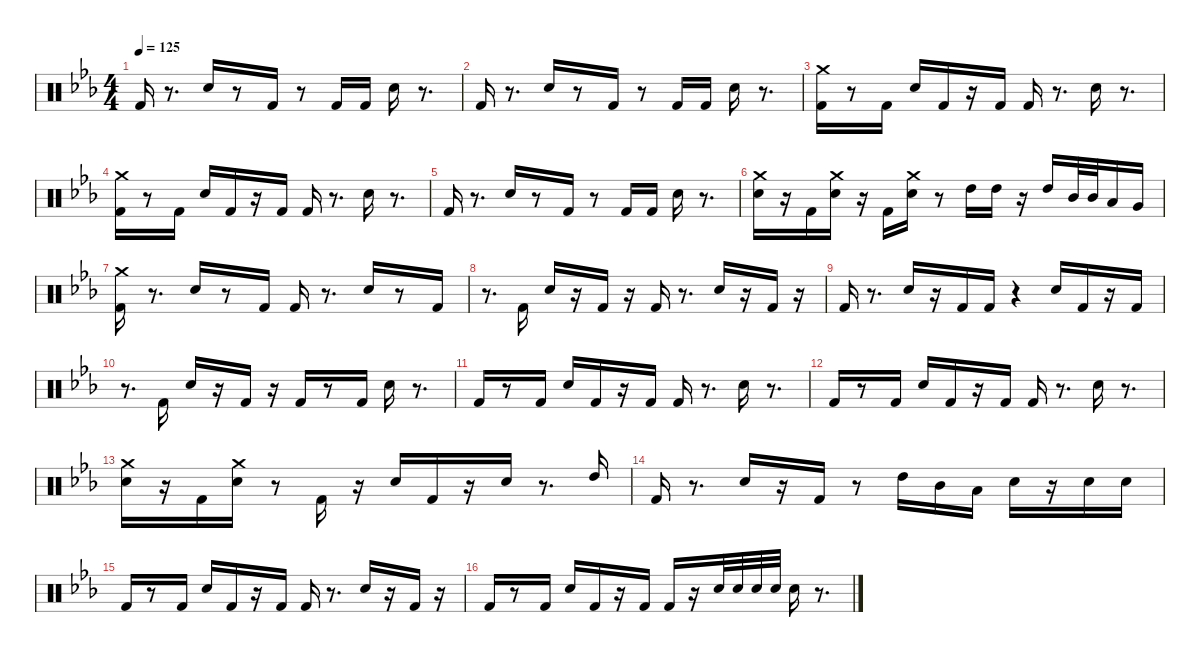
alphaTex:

\defaultSystemsLayout 4
\hideDynamics
\bracketExtendMode nobrackets
\singleTrackTrackNamePolicy hidden
\multiTrackTrackNamePolicy hidden
\firstSystemTrackNameMode fullname
\firstSystemTrackNameOrientation horizontal
\otherSystemsTrackNameOrientation horizontal
\track ("Batterie" "drm.") {defaultSystemsLayout 4 instrument percussion}
\staff {score}
\articulation defaults
\ts (4 4)
\tempo 125
\clef neutral
\ks eb "Kick (hit) 2"{acc forcenatural}.16{dy f beam Up}
r.8{d beam Up} "Snare (hit) 2"{acc forcenatural}.16{beam Up} r.8{beam Up} "Kick (hit) 2"{acc forcenatural}.16{beam Up} r.8{beam Up} "Kick (hit) 2"{acc forcenatural}.16{beam Up} "Kick (hit) 2"{acc forcenatural}.16{beam Up} "Snare (hit) 2"{acc forcenatural}.16{beam Down} r.8{d beam Down} |
"Kick (hit) 2"{acc forcenatural}.16{beam Up} r.8{d beam Up} "Snare (hit) 2"{acc forcenatural}.16{beam Up} r.8{beam Up} "Kick (hit) 2"{acc forcenatural}.16{beam Up} r.8{beam Up} "Kick (hit) 2"{acc forcenatural}.16{beam Up} "Kick (hit) 2"{acc forcenatural}.16{beam Up} "Snare (hit) 2"{acc forcenatural}.16{beam Down} r.8{d beam Down} |
("Kick (hit) 2"{acc forcenatural} "Crash medium (hit)"{acc forcenatural}).16{beam Down} r.8{beam Down} "Kick (hit) 2"{acc forcenatural}.16{beam Down} "Snare (hit) 2"{acc forcenatural}.16{beam Up} "Kick (hit) 2"{acc forcenatural}.16{beam Up} r.16{beam Up} "Kick (hit) 2"{acc forcenatural}.16{beam Up} "Kick (hit) 2"{acc forcenatural}.16{beam Up} r.8{d beam Up} "Snare (hit) 2"{acc forcenatural}.16{beam Down} r.8{d beam Down} |
("Kick (hit) 2"{acc forcenatural} "Crash medium (hit)"{acc forcenatural}).16{beam Down} r.8{beam Down} "Kick (hit) 2"{acc forcenatural}.16{beam Down} "Snare (hit) 2"{acc forcenatural}.16{beam Up} "Kick (hit) 2"{acc forcenatural}.16{beam Up} r.16{beam Up} "Kick (hit) 2"{acc forcenatural}.16{beam Up} "Kick (hit) 2"{acc forcenatural}.16{beam Up} r.8{d beam Up} "Snare (hit) 2"{acc forcenatural}.16{beam Down} r.8{d beam Down} |
"Kick (hit) 2"{acc forcenatural}.16{beam Up} r.8{d beam Up} "Snare (hit) 2"{acc forcenatural}.16{beam Up} r.8{beam Up} "Kick (hit) 2"{acc forcenatural}.16{beam Up} r.8{beam Up} "Kick (hit) 2"{acc forcenatural}.16{beam Up} "Kick (hit) 2"{acc forcenatural}.16{beam Up} "Snare (hit) 2"{acc forcenatural}.16{beam Down} r.8{d beam Down} |
("Snare (hit) 2"{acc forcenatural} "Crash medium (hit)"{acc forcenatural}).16{beam Down} r.16{beam Down} "Kick (hit) 2"{acc forcenatural}.16{beam Down} ("Snare (hit) 2"{acc forcenatural} "Crash medium (hit)"{acc forcenatural}).16{beam Down} r.16{beam Down} "Kick (hit) 2"{acc forcenatural}.16{beam Down} ("Snare (hit) 2"{acc forcenatural} "Crash medium (hit)"{acc forcenatural}).16{beam Down} r.8{beam Down} "High Tom (hit)"{acc forcenatural}.16{beam Down} "High Tom (hit)"{acc forcenatural}.16{beam Down} r.16{beam Down} "High Tom (hit)"{acc forcenatural}.16{beam Up} "Mid Tom (hit)"{acc forcenatural}.32{beam Up} "Mid Tom (hit)"{acc forcenatural}.32{beam Up} "Low Tom (hit)"{acc forcenatural}.16{beam Up} "Very Low Tom (hit)"{acc forcenatural}.16{beam Up} |
("Crash medium (hit)"{acc forcenatural} "Kick (hit) 2"{acc forcenatural}).16{beam Down} r.8{d beam Down} "Snare (hit) 2"{acc forcenatural}.16{beam Up} r.8{beam Up} "Kick (hit) 2"{acc forcenatural}.16{beam Up} "Kick (hit) 2"{acc forcenatural}.16{beam Up} r.8{d beam Up} "Snare (hit) 2"{acc forcenatural}.16{beam Up} r.8{beam Up} "Kick (hit) 2"{acc forcenatural}.16{beam Up} |
r.8{d beam Down} "Kick (hit) 2"{acc forcenatural}.16{beam Up} "Snare (hit) 2"{acc forcenatural}.16{beam Up} r.16{beam Up} "Kick (hit) 2"{acc forcenatural}.16{beam Up} r.16{beam Up} "Kick (hit) 2"{acc forcenatural}.16{beam Up} r.8{d beam Up} "Snare (hit) 2"{acc forcenatural}.16{beam Up} r.16{beam Up} "Kick (hit) 2"{acc forcenatural}.16{beam Up} r.16{beam Up} |
"Kick (hit) 2"{acc forcenatural}.16{beam Up} r.8{d beam Up} "Snare (hit) 2"{acc forcenatural}.16{beam Up} r.16{beam Up} "Kick (hit) 2"{acc forcenatural}.16{beam Up} "Kick (hit) 2"{acc forcenatural}.16{beam Up} r.4{beam Up} "Snare (hit) 2"{acc forcenatural}.16{beam Up} "Kick (hit) 2"{acc forcenatural}.16{beam Up} r.16{beam Up} "Kick (hit) 2"{acc forcenatural}.16{beam Up} |
r.8{d beam Down} "Kick (hit) 2"{acc forcenatural}.16{beam Up} "Snare (hit) 2"{acc forcenatural}.16{beam Up} r.16{beam Up} "Kick (hit) 2"{acc forcenatural}.16{beam Up} r.16{beam Up} "Kick (hit) 2"{acc forcenatural}.16{beam Up} r.8{beam Up} "Kick (hit) 2"{acc forcenatural}.16{beam Up} "Snare (hit) 2"{acc forcenatural}.16{beam Down} r.8{d beam Down} |
"Kick (hit) 2"{acc forcenatural}.16{beam Up} r.8{beam Up} "Kick (hit) 2"{acc forcenatural}.16{beam Up} "Snare (hit) 2"{acc forcenatural}.16{beam Up} "Kick (hit) 2"{acc forcenatural}.16{beam Up} r.16{beam Up} "Kick (hit) 2"{acc forcenatural}.16{beam Up} "Kick (hit) 2"{acc forcenatural}.16{beam Up} r.8{d beam Up} "Snare (hit) 2"{acc forcenatural}.16{beam Down} r.8{d beam Down} |
"Kick (hit) 2"{acc forcenatural}.16{beam Up} r.8{beam Up} "Kick (hit) 2"{acc forcenatural}.16{beam Up} "Snare (hit) 2"{acc forcenatural}.16{beam Up} "Kick (hit) 2"{acc forcenatural}.16{beam Up} r.16{beam Up} "Kick (hit) 2"{acc forcenatural}.16{beam Up} "Kick (hit) 2"{acc forcenatural}.16{beam Up} r.8{d beam Up} "Snare (hit) 2"{acc forcenatural}.16{beam Down} r.8{d beam Down} |
("Crash medium (hit)"{acc forcenatural} "Snare (hit) 2"{acc forcenatural}).16{beam Down} r.16{beam Down} "Kick (hit) 2"{acc forcenatural}.16{beam Down} ("Crash medium (hit)"{acc forcenatural} "Snare (hit) 2"{acc forcenatural}).16{beam Down} r.8{beam Down} "Kick (hit) 2"{acc forcenatural}.16{beam Up} r.16{beam Up} "Snare (hit) 2"{acc forcenatural}.16{beam Up} "Kick (hit) 2"{acc forcenatural}.16{beam Up} r.16{beam Up} "Snare (hit) 2"{acc forcenatural}.16{beam Up} r.8{d beam Up} "High Tom (hit)"{acc forcenatural}.16{beam Down} |
"Kick (hit) 2"{acc forcenatural}.16{beam Up} r.8{d beam Up} "Snare (hit) 2"{acc forcenatural}.16{beam Up} r.16{beam Up} "Kick (hit) 2"{acc forcenatural}.16{beam Up} r.8{beam Up} "High Tom (hit)"{acc forcenatural}.16{beam Down} "Mid Tom (hit)"{acc forcenatural}.16{beam Down} "Low Tom (hit)"{acc forcenatural}.16{beam Down} "Snare (hit) 2"{acc forcenatural}.16{beam Down} r.16{beam Down} "Snare (hit) 2"{acc forcenatural}.16{beam Down} "Snare (hit) 2"{acc forcenatural}.16{beam Down} |
"Kick (hit) 2"{acc forcenatural}.16{beam Up} r.8{beam Up} "Kick (hit) 2"{acc forcenatural}.16{beam Up} "Snare (hit) 2"{acc forcenatural}.16{beam Up} "Kick (hit) 2"{acc forcenatural}.16{beam Up} r.16{beam Up} "Kick (hit) 2"{acc forcenatural}.16{beam Up} "Kick (hit) 2"{acc forcenatural}.16{beam Up} r.8{d beam Up} "Snare (hit) 2"{acc forcenatural}.16{beam Up} r.16{beam Up} "Kick (hit) 2"{acc forcenatural}.16{beam Up} r.16{beam Up} |
"Kick (hit) 2"{acc forcenatural}.16{beam Up} r.8{beam Up} "Kick (hit) 2"{acc forcenatural}.16{beam Up} "Snare (hit) 2"{acc forcenatural}.16{beam Up} "Kick (hit) 2"{acc forcenatural}.16{beam Up} r.16{beam Up} "Kick (hit) 2"{acc forcenatural}.16{beam Up} "Kick (hit) 2"{acc forcenatural}.16{beam Up} r.16{beam Up} "Snare (hit) 2"{acc forcenatural}.32{beam Up} "Snare (hit) 2"{acc forcenatural}.32{beam Up} "Snare (hit) 2"{acc forcenatural}.32{beam Up} "Snare (hit) 2"{acc forcenatural}.32{beam Up} "Snare (hit) 2"{acc forcenatural}.16{beam Down} r.8{d beam Down}
